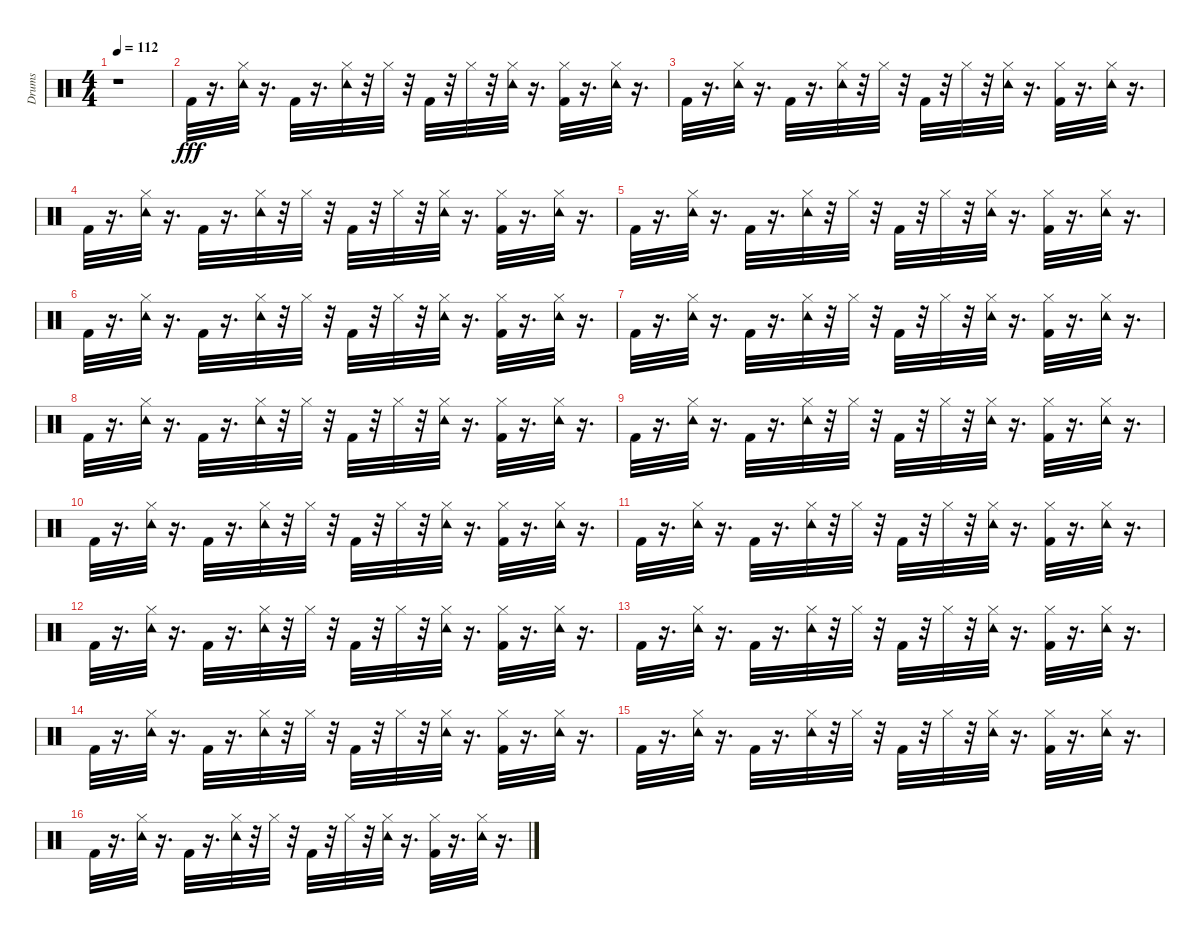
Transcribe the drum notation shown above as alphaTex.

\track ("Drums" "Drums") {instrument percussion}
\staff {score}
\articulation defaults
\ts (4 4)
\tempo 112
\clef neutral
\ks c
r.1{dy fff} |
"Kick (hit) 2".32 r.16{d} ("Tambourine (hit)" "Hi-Hat (closed)").32 r.16{d} "Kick (hit) 2".32 r.16{d} ("Tambourine (hit)" "Hi-Hat (closed)").32 r.32 "Hi-Hat (closed)".32 r.32 "Kick (hit) 2".32 r.32 "Hi-Hat (closed)".32 r.32 ("Tambourine (hit)" "Hi-Hat (closed)").32 r.16{d} ("Hi-Hat (closed)" "Kick (hit) 2").32 r.16{d} ("Tambourine (hit)" "Hi-Hat (closed)").32 r.16{d} |
"Kick (hit) 2".32 r.16{d} ("Tambourine (hit)" "Hi-Hat (closed)").32 r.16{d} "Kick (hit) 2".32 r.16{d} ("Tambourine (hit)" "Hi-Hat (closed)").32 r.32 "Hi-Hat (closed)".32 r.32 "Kick (hit) 2".32 r.32 "Hi-Hat (closed)".32 r.32 ("Tambourine (hit)" "Hi-Hat (closed)").32 r.16{d} ("Hi-Hat (closed)" "Kick (hit) 2").32 r.16{d} ("Tambourine (hit)" "Hi-Hat (closed)").32 r.16{d} |
"Kick (hit) 2".32 r.16{d} ("Tambourine (hit)" "Hi-Hat (closed)").32 r.16{d} "Kick (hit) 2".32 r.16{d} ("Tambourine (hit)" "Hi-Hat (closed)").32 r.32 "Hi-Hat (closed)".32 r.32 "Kick (hit) 2".32 r.32 "Hi-Hat (closed)".32 r.32 ("Tambourine (hit)" "Hi-Hat (closed)").32 r.16{d} ("Hi-Hat (closed)" "Kick (hit) 2").32 r.16{d} ("Tambourine (hit)" "Hi-Hat (closed)").32 r.16{d} |
"Kick (hit) 2".32 r.16{d} ("Tambourine (hit)" "Hi-Hat (closed)").32 r.16{d} "Kick (hit) 2".32 r.16{d} ("Tambourine (hit)" "Hi-Hat (closed)").32 r.32 "Hi-Hat (closed)".32 r.32 "Kick (hit) 2".32 r.32 "Hi-Hat (closed)".32 r.32 ("Tambourine (hit)" "Hi-Hat (closed)").32 r.16{d} ("Hi-Hat (closed)" "Kick (hit) 2").32 r.16{d} ("Tambourine (hit)" "Hi-Hat (closed)").32 r.16{d} |
"Kick (hit) 2".32{volume 16} r.16{d} ("Tambourine (hit)" "Hi-Hat (closed)").32 r.16{d} "Kick (hit) 2".32 r.16{d} ("Tambourine (hit)" "Hi-Hat (closed)").32 r.32 "Hi-Hat (closed)".32 r.32 "Kick (hit) 2".32 r.32 "Hi-Hat (closed)".32 r.32 ("Tambourine (hit)" "Hi-Hat (closed)").32 r.16{d} ("Hi-Hat (closed)" "Kick (hit) 2").32 r.16{d} ("Tambourine (hit)" "Hi-Hat (closed)").32 r.16{d} |
"Kick (hit) 2".32 r.16{d} ("Tambourine (hit)" "Hi-Hat (closed)").32 r.16{d} "Kick (hit) 2".32 r.16{d} ("Tambourine (hit)" "Hi-Hat (closed)").32 r.32 "Hi-Hat (closed)".32 r.32 "Kick (hit) 2".32 r.32 "Hi-Hat (closed)".32 r.32 ("Tambourine (hit)" "Hi-Hat (closed)").32 r.16{d} ("Hi-Hat (closed)" "Kick (hit) 2").32 r.16{d} ("Tambourine (hit)" "Hi-Hat (closed)").32 r.16{d} |
"Kick (hit) 2".32 r.16{d} ("Tambourine (hit)" "Hi-Hat (closed)").32 r.16{d} "Kick (hit) 2".32 r.16{d} ("Tambourine (hit)" "Hi-Hat (closed)").32 r.32 "Hi-Hat (closed)".32 r.32 "Kick (hit) 2".32 r.32 "Hi-Hat (closed)".32 r.32 ("Tambourine (hit)" "Hi-Hat (closed)").32 r.16{d} ("Hi-Hat (closed)" "Kick (hit) 2").32 r.16{d} ("Tambourine (hit)" "Hi-Hat (closed)").32 r.16{d} |
"Kick (hit) 2".32 r.16{d} ("Tambourine (hit)" "Hi-Hat (closed)").32 r.16{d} "Kick (hit) 2".32 r.16{d} ("Tambourine (hit)" "Hi-Hat (closed)").32 r.32 "Hi-Hat (closed)".32 r.32 "Kick (hit) 2".32 r.32 "Hi-Hat (closed)".32 r.32 ("Tambourine (hit)" "Hi-Hat (closed)").32 r.16{d} ("Hi-Hat (closed)" "Kick (hit) 2").32 r.16{d} ("Tambourine (hit)" "Hi-Hat (closed)").32 r.16{d} |
"Kick (hit) 2".32 r.16{d} ("Tambourine (hit)" "Hi-Hat (closed)").32 r.16{d} "Kick (hit) 2".32 r.16{d} ("Tambourine (hit)" "Hi-Hat (closed)").32 r.32 "Hi-Hat (closed)".32 r.32 "Kick (hit) 2".32 r.32 "Hi-Hat (closed)".32 r.32 ("Tambourine (hit)" "Hi-Hat (closed)").32 r.16{d} ("Hi-Hat (closed)" "Kick (hit) 2").32 r.16{d} ("Tambourine (hit)" "Hi-Hat (closed)").32 r.16{d} |
"Kick (hit) 2".32 r.16{d} ("Tambourine (hit)" "Hi-Hat (closed)").32 r.16{d} "Kick (hit) 2".32 r.16{d} ("Tambourine (hit)" "Hi-Hat (closed)").32 r.32 "Hi-Hat (closed)".32 r.32 "Kick (hit) 2".32 r.32 "Hi-Hat (closed)".32 r.32 ("Tambourine (hit)" "Hi-Hat (closed)").32 r.16{d} ("Hi-Hat (closed)" "Kick (hit) 2").32 r.16{d} ("Tambourine (hit)" "Hi-Hat (closed)").32 r.16{d} |
"Kick (hit) 2".32 r.16{d} ("Tambourine (hit)" "Hi-Hat (closed)").32 r.16{d} "Kick (hit) 2".32 r.16{d} ("Tambourine (hit)" "Hi-Hat (closed)").32 r.32 "Hi-Hat (closed)".32 r.32 "Kick (hit) 2".32 r.32 "Hi-Hat (closed)".32 r.32 ("Tambourine (hit)" "Hi-Hat (closed)").32 r.16{d} ("Hi-Hat (closed)" "Kick (hit) 2").32 r.16{d} ("Tambourine (hit)" "Hi-Hat (closed)").32 r.16{d} |
"Kick (hit) 2".32 r.16{d} ("Tambourine (hit)" "Hi-Hat (closed)").32 r.16{d} "Kick (hit) 2".32 r.16{d} ("Tambourine (hit)" "Hi-Hat (closed)").32 r.32 "Hi-Hat (closed)".32 r.32 "Kick (hit) 2".32 r.32 "Hi-Hat (closed)".32 r.32 ("Tambourine (hit)" "Hi-Hat (closed)").32 r.16{d} ("Hi-Hat (closed)" "Kick (hit) 2").32 r.16{d} ("Tambourine (hit)" "Hi-Hat (closed)").32 r.16{d} |
"Kick (hit) 2".32{volume 16} r.16{d} ("Tambourine (hit)" "Hi-Hat (closed)").32 r.16{d} "Kick (hit) 2".32 r.16{d} ("Tambourine (hit)" "Hi-Hat (closed)").32 r.32 "Hi-Hat (closed)".32 r.32 "Kick (hit) 2".32 r.32 "Hi-Hat (closed)".32 r.32 ("Tambourine (hit)" "Hi-Hat (closed)").32 r.16{d} ("Hi-Hat (closed)" "Kick (hit) 2").32 r.16{d} ("Tambourine (hit)" "Hi-Hat (closed)").32 r.16{d} |
"Kick (hit) 2".32 r.16{d} ("Tambourine (hit)" "Hi-Hat (closed)").32 r.16{d} "Kick (hit) 2".32 r.16{d} ("Tambourine (hit)" "Hi-Hat (closed)").32 r.32 "Hi-Hat (closed)".32 r.32 "Kick (hit) 2".32 r.32 "Hi-Hat (closed)".32 r.32 ("Tambourine (hit)" "Hi-Hat (closed)").32 r.16{d} ("Hi-Hat (closed)" "Kick (hit) 2").32 r.16{d} ("Tambourine (hit)" "Hi-Hat (closed)").32 r.16{d} |
"Kick (hit) 2".32 r.16{d} ("Tambourine (hit)" "Hi-Hat (closed)").32 r.16{d} "Kick (hit) 2".32 r.16{d} ("Tambourine (hit)" "Hi-Hat (closed)").32 r.32 "Hi-Hat (closed)".32 r.32 "Kick (hit) 2".32 r.32 "Hi-Hat (closed)".32 r.32 ("Tambourine (hit)" "Hi-Hat (closed)").32 r.16{d} ("Hi-Hat (closed)" "Kick (hit) 2").32 r.16{d} ("Tambourine (hit)" "Hi-Hat (closed)").32 r.16{d}
